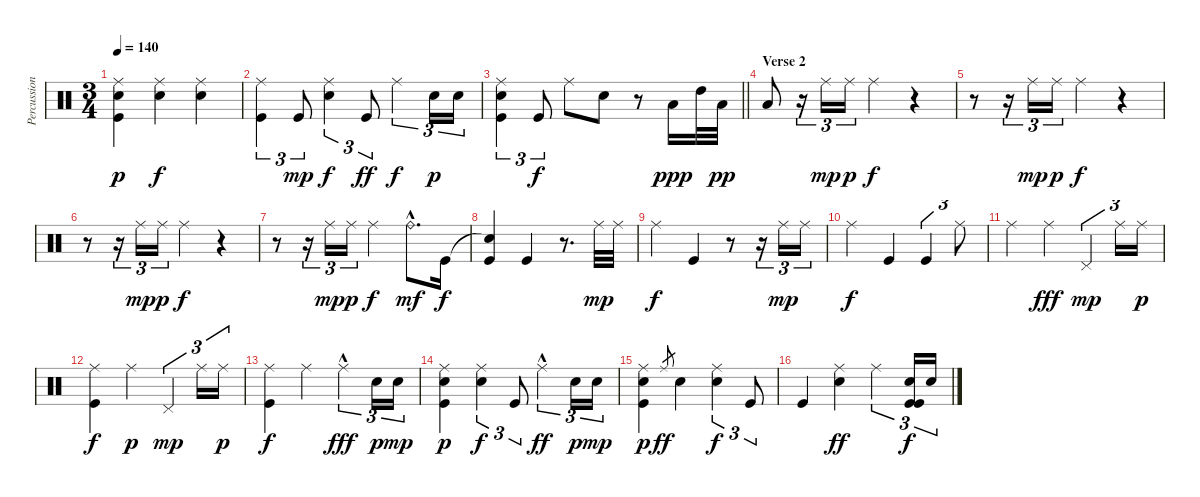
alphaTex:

\track ("Percussion" "Percussion") {instrument percussion}
\staff {score}
\articulation defaults
\ts (3 4)
\tempo 140
\clef neutral
\ks c
("Ride (middle)" "Electric Snare (hit)" "Kick (hit)").4{dy p} ("Ride (middle)" "Electric Snare (hit)").4{dy f} ("Ride (middle)" "Electric Snare (hit)").4 |
("Ride (middle)" "Kick (hit)").4{tu (3 2)} "Kick (hit)".8{tu (3 2) dy mp} ("Ride (middle)" "Electric Snare (hit)").4{tu (3 2) dy f} "Kick (hit)".8{tu (3 2) dy ff} "Ride (middle)".4{tu (3 2) dy f} "Electric Snare (hit)".16{tu (3 2) dy p} "Electric Snare (hit)".16{tu (3 2)} |
\barLineRight lightlight
("Ride (middle)" "Electric Snare (hit)" "Kick (hit)").4{tu (3 2)} "Kick (hit)".8{tu (3 2) dy f} "Ride (middle)".8 "Electric Snare (hit)".8 r.8 "Low Tom (hit)".16{dy ppp} "High Tom (hit)".32 "Low Tom (hit)".32{dy pp} |
\section ("" "Verse 2")
"Low Tom (hit)".8 r.16{tu (3 2)} "Ride (middle)".16{tu (3 2) dy mp} "Ride (middle)".16{tu (3 2) dy p} "Ride (middle)".4{dy f} r.4 |
r.8 r.16{tu (3 2)} "Ride (middle)".16{tu (3 2) dy mp} "Ride (middle)".16{tu (3 2) dy p} "Ride (middle)".4{dy f} r.4 |
r.8 r.16{tu (3 2)} "Ride (middle)".16{tu (3 2) dy mp} "Ride (middle)".16{tu (3 2) dy p} "Ride (middle)".4{dy f} r.4 |
r.8 r.16{tu (3 2)} "Ride (middle)".16{tu (3 2) dy mp} "Ride (middle)".16{tu (3 2) dy p} "Ride (middle)".4{dy f} "Ride (bell)"{hac}.8{d dy mf} "Kick (hit)".16{dy f} |
("Snare (hit)"{t} "Kick (hit)").4 "Kick (hit)".4 r.8{d} "Ride (middle)".32{dy mp} "Ride (middle)".32 |
"Ride (middle)".4{dy f} "Kick (hit)".4 r.8 r.16{tu (3 2)} "Ride (middle)".16{tu (3 2) dy mp} "Ride (middle)".16{tu (3 2)} |
"Ride (middle)".4{dy f} "Kick (hit)".4 "Kick (hit)".4{tu (3 2)} "Ride (middle)".8{tu (3 2)} |
"Ride (middle)".4 "Ride (middle)".4{dy fff} "Pedal Hi-Hat (hit)".4{tu (3 2) dy mp} "Ride (middle)".16{tu (3 2)} "Ride (middle)".16{tu (3 2) dy p} |
("Ride (middle)" "Kick (hit)").4{dy f} "Ride (middle)".4{dy p} "Pedal Hi-Hat (hit)".4{tu (3 2) dy mp} "Ride (middle)".16{tu (3 2)} "Ride (middle)".16{tu (3 2) dy p} |
("Ride (middle)" "Kick (hit)").4{dy f} "Ride (middle)".4 "Ride (middle)"{hac}.4{tu (3 2) dy fff} "Electric Snare (hit)".16{tu (3 2) dy p} "Electric Snare (hit)".16{tu (3 2) dy mp} |
("Ride (middle)" "Electric Snare (hit)" "Kick (hit)").4{dy p} ("Ride (middle)" "Electric Snare (hit)").4{tu (3 2) dy f} "Kick (hit)".8{tu (3 2)} "Ride (middle)"{hac}.4{tu (3 2) dy ff} "Electric Snare (hit)".16{tu (3 2) dy p} "Electric Snare (hit)".16{tu (3 2) dy mp} |
("Ride (middle)" "Electric Snare (hit)" "Kick (hit)").4{dy p} "Ride (middle)".8{gr dy ff} "Electric Snare (hit)".4 ("Ride (middle)" "Electric Snare (hit)").4{tu (3 2) dy f} "Kick (hit)".8{tu (3 2)} |
"Kick (hit)".4 ("Ride (middle)" "Electric Snare (hit)").4{dy ff} "Ride (middle)".4{tu (3 2)} ("Kick (hit)" "Electric Snare (hit)" "Kick (hit)").16{tu (3 2) dy f} "Electric Snare (hit)".16{tu (3 2)}
